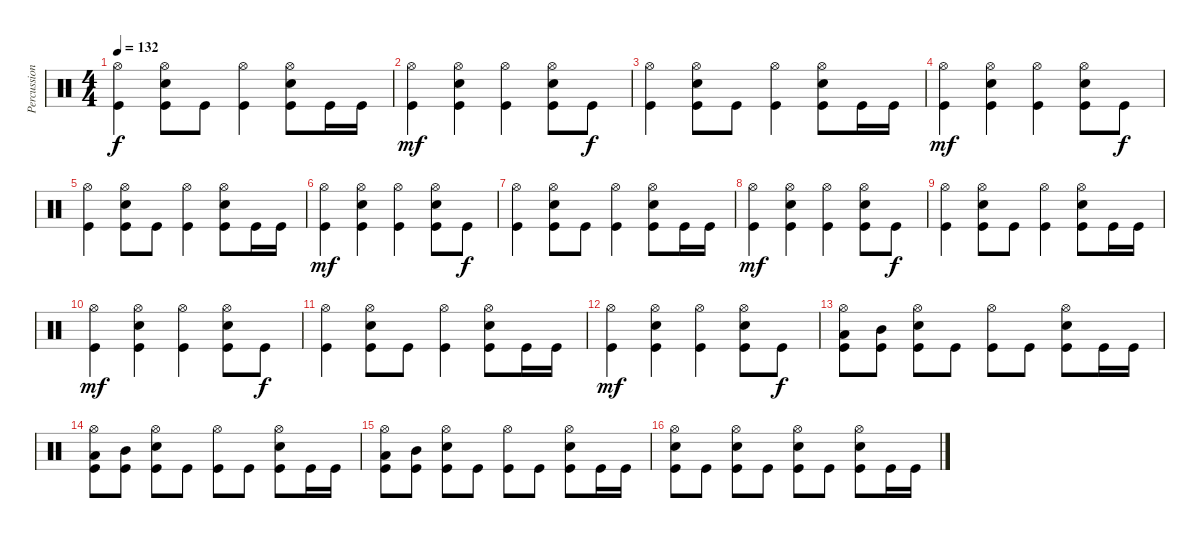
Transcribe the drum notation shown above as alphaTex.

\track ("Percussion" "Percussion") {instrument percussion}
\staff {score}
\articulation defaults
\ts (4 4)
\tempo 132
\clef neutral
\ks c
("Hi-Hat (open)" "Kick (hit)").4{dy f} ("Hi-Hat (open)" "Electric Snare (hit)" "Kick (hit)").8 "Kick (hit)".8 ("Hi-Hat (open)" "Kick (hit)").4 ("Hi-Hat (open)" "Electric Snare (hit)" "Kick (hit)").8 "Kick (hit)".16 "Kick (hit)".16 |
("Hi-Hat (open)" "Kick (hit)").4{dy mf} ("Hi-Hat (open)" "Electric Snare (hit)" "Kick (hit)").4 ("Hi-Hat (open)" "Kick (hit)").4 ("Hi-Hat (open)" "Electric Snare (hit)" "Kick (hit)").8 "Kick (hit)".8{dy f} |
("Hi-Hat (open)" "Kick (hit)").4 ("Hi-Hat (open)" "Electric Snare (hit)" "Kick (hit)").8 "Kick (hit)".8 ("Hi-Hat (open)" "Kick (hit)").4 ("Hi-Hat (open)" "Electric Snare (hit)" "Kick (hit)").8 "Kick (hit)".16 "Kick (hit)".16 |
("Hi-Hat (open)" "Kick (hit)").4{dy mf} ("Hi-Hat (open)" "Electric Snare (hit)" "Kick (hit)").4 ("Hi-Hat (open)" "Kick (hit)").4 ("Hi-Hat (open)" "Electric Snare (hit)" "Kick (hit)").8 "Kick (hit)".8{dy f} |
("Hi-Hat (open)" "Kick (hit)").4 ("Hi-Hat (open)" "Electric Snare (hit)" "Kick (hit)").8 "Kick (hit)".8 ("Hi-Hat (open)" "Kick (hit)").4 ("Hi-Hat (open)" "Electric Snare (hit)" "Kick (hit)").8 "Kick (hit)".16 "Kick (hit)".16 |
("Hi-Hat (open)" "Kick (hit)").4{dy mf} ("Hi-Hat (open)" "Electric Snare (hit)" "Kick (hit)").4 ("Hi-Hat (open)" "Kick (hit)").4 ("Hi-Hat (open)" "Electric Snare (hit)" "Kick (hit)").8 "Kick (hit)".8{dy f} |
("Hi-Hat (open)" "Kick (hit)").4 ("Hi-Hat (open)" "Electric Snare (hit)" "Kick (hit)").8 "Kick (hit)".8 ("Hi-Hat (open)" "Kick (hit)").4 ("Hi-Hat (open)" "Electric Snare (hit)" "Kick (hit)").8 "Kick (hit)".16 "Kick (hit)".16 |
("Hi-Hat (open)" "Kick (hit)").4{dy mf} ("Hi-Hat (open)" "Electric Snare (hit)" "Kick (hit)").4 ("Hi-Hat (open)" "Kick (hit)").4 ("Hi-Hat (open)" "Electric Snare (hit)" "Kick (hit)").8 "Kick (hit)".8{dy f} |
("Hi-Hat (open)" "Kick (hit)").4 ("Hi-Hat (open)" "Electric Snare (hit)" "Kick (hit)").8 "Kick (hit)".8 ("Hi-Hat (open)" "Kick (hit)").4 ("Hi-Hat (open)" "Electric Snare (hit)" "Kick (hit)").8 "Kick (hit)".16 "Kick (hit)".16 |
("Hi-Hat (open)" "Kick (hit)").4{dy mf} ("Hi-Hat (open)" "Electric Snare (hit)" "Kick (hit)").4 ("Hi-Hat (open)" "Kick (hit)").4 ("Hi-Hat (open)" "Electric Snare (hit)" "Kick (hit)").8 "Kick (hit)".8{dy f} |
("Hi-Hat (open)" "Kick (hit)").4 ("Hi-Hat (open)" "Electric Snare (hit)" "Kick (hit)").8 "Kick (hit)".8 ("Hi-Hat (open)" "Kick (hit)").4 ("Hi-Hat (open)" "Electric Snare (hit)" "Kick (hit)").8 "Kick (hit)".16 "Kick (hit)".16 |
("Hi-Hat (open)" "Kick (hit)").4{dy mf} ("Hi-Hat (open)" "Electric Snare (hit)" "Kick (hit)").4 ("Hi-Hat (open)" "Kick (hit)").4 ("Hi-Hat (open)" "Electric Snare (hit)" "Kick (hit)").8 "Kick (hit)".8{dy f} |
("Hi-Hat (open)" "Low Tom (hit)" "Kick (hit)").8 ("Mid Tom (hit)" "Kick (hit)").8 ("Hi-Hat (open)" "Electric Snare (hit)" "Kick (hit)").8 "Kick (hit)".8 ("Hi-Hat (open)" "Kick (hit)").8 "Kick (hit)".8 ("Hi-Hat (open)" "Electric Snare (hit)" "Kick (hit)").8 "Kick (hit)".16 "Kick (hit)".16 |
("Hi-Hat (open)" "Low Tom (hit)" "Kick (hit)").8 ("Mid Tom (hit)" "Kick (hit)").8 ("Hi-Hat (open)" "Electric Snare (hit)" "Kick (hit)").8 "Kick (hit)".8 ("Hi-Hat (open)" "Kick (hit)").8 "Kick (hit)".8 ("Hi-Hat (open)" "Electric Snare (hit)" "Kick (hit)").8 "Kick (hit)".16 "Kick (hit)".16 |
("Hi-Hat (open)" "Low Tom (hit)" "Kick (hit)").8 ("Mid Tom (hit)" "Kick (hit)").8 ("Hi-Hat (open)" "Electric Snare (hit)" "Kick (hit)").8 "Kick (hit)".8 ("Hi-Hat (open)" "Kick (hit)").8 "Kick (hit)".8 ("Hi-Hat (open)" "Electric Snare (hit)" "Kick (hit)").8 "Kick (hit)".16 "Kick (hit)".16 |
("Hi-Hat (open)" "Electric Snare (hit)" "Kick (hit)").8 "Kick (hit)".8 ("Hi-Hat (open)" "Electric Snare (hit)" "Kick (hit)").8 "Kick (hit)".8 ("Hi-Hat (open)" "Electric Snare (hit)" "Kick (hit)").8 "Kick (hit)".8 ("Hi-Hat (open)" "Electric Snare (hit)" "Kick (hit)").8 "Kick (hit)".16 "Kick (hit)".16
